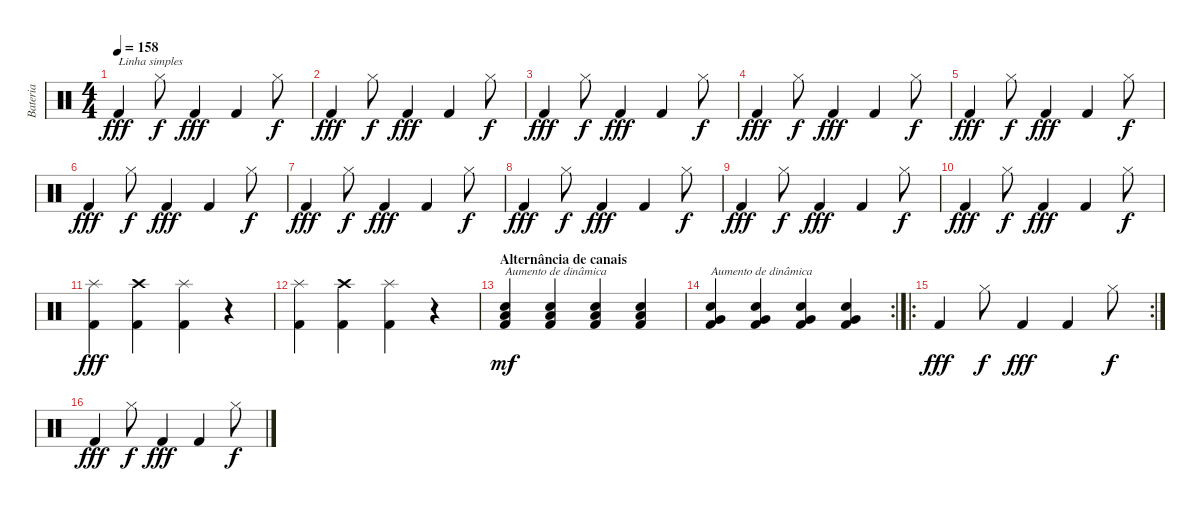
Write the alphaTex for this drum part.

\track ("Bateria" "Bateria") {instrument percussion}
\staff {score}
\articulation defaults
\ts (4 4)
\tempo 158
\clef neutral
\ks c "Kick (hit) 2".4{txt "Linha simples" dy fff} "Hi-Hat (closed)".8{dy f} "Kick (hit) 2".4{dy fff} "Kick (hit) 2".4 "Hi-Hat (closed)".8{dy f}
|
"Kick (hit) 2".4{dy fff} "Hi-Hat (closed)".8{dy f} "Kick (hit) 2".4{dy fff} "Kick (hit) 2".4 "Hi-Hat (closed)".8{dy f} |
"Kick (hit) 2".4{dy fff} "Hi-Hat (closed)".8{dy f} "Kick (hit) 2".4{dy fff} "Kick (hit) 2".4 "Hi-Hat (closed)".8{dy f} |
"Kick (hit) 2".4{dy fff} "Hi-Hat (closed)".8{dy f} "Kick (hit) 2".4{dy fff} "Kick (hit) 2".4 "Hi-Hat (closed)".8{dy f} |
"Kick (hit) 2".4{dy fff} "Hi-Hat (closed)".8{dy f} "Kick (hit) 2".4{dy fff} "Kick (hit) 2".4 "Hi-Hat (closed)".8{dy f} |
"Kick (hit) 2".4{dy fff} "Hi-Hat (closed)".8{dy f} "Kick (hit) 2".4{dy fff} "Kick (hit) 2".4 "Hi-Hat (closed)".8{dy f} |
"Kick (hit) 2".4{dy fff} "Hi-Hat (closed)".8{dy f} "Kick (hit) 2".4{dy fff} "Kick (hit) 2".4 "Hi-Hat (closed)".8{dy f} |
"Kick (hit) 2".4{dy fff} "Hi-Hat (closed)".8{dy f} "Kick (hit) 2".4{dy fff} "Kick (hit) 2".4 "Hi-Hat (closed)".8{dy f} |
"Kick (hit) 2".4{dy fff} "Hi-Hat (closed)".8{dy f} "Kick (hit) 2".4{dy fff} "Kick (hit) 2".4 "Hi-Hat (closed)".8{dy f} |
"Kick (hit) 2".4{dy fff} "Hi-Hat (closed)".8{dy f} "Kick (hit) 2".4{dy fff} "Kick (hit) 2".4 "Hi-Hat (closed)".8{dy f} |
("Kick (hit) 2" "Splash (hit)").4{dy fff} ("Kick (hit) 2" "Crash high (hit)").4 ("Kick (hit) 2" "Splash (hit)").4 r.4 |
("Kick (hit) 2" "Splash (hit)").4 ("Kick (hit) 2" "Crash high (hit)").4 ("Kick (hit) 2" "Splash (hit)").4 r.4 |
\section ("" "Alternância de canais")
("Kick (hit) 2" "Low Floor Tom (hit)" "Snare (hit) 2").4{txt "Aumento de dinâmica" dy mf volume 1} ("Kick (hit) 2" "Low Floor Tom (hit)" "Snare (hit) 2").4{volume 3} ("Kick (hit) 2" "Low Floor Tom (hit)" "Snare (hit) 2").4{volume 5} ("Kick (hit) 2" "Low Floor Tom (hit)" "Snare (hit) 2").4{volume 7} |
\rc 2
("Kick (hit) 2" "Very Low Tom (hit)" "Snare (hit) 2").4{txt "Aumento de dinâmica" volume 9} ("Kick (hit) 2" "Very Low Tom (hit)" "Snare (hit) 2").4{volume 11} ("Kick (hit) 2" "Very Low Tom (hit)" "Snare (hit) 2").4{volume 13} ("Kick (hit) 2" "Very Low Tom (hit)" "Snare (hit) 2").4{volume 16} |
\ro
\rc 2 "Kick (hit) 2".4{dy fff} "Hi-Hat (closed)".8{dy f} "Kick (hit) 2".4{dy fff} "Kick (hit) 2".4 "Hi-Hat (closed)".8{dy f}
|
"Kick (hit) 2".4{dy fff} "Hi-Hat (closed)".8{dy f} "Kick (hit) 2".4{dy fff} "Kick (hit) 2".4 "Hi-Hat (closed)".8{dy f}
